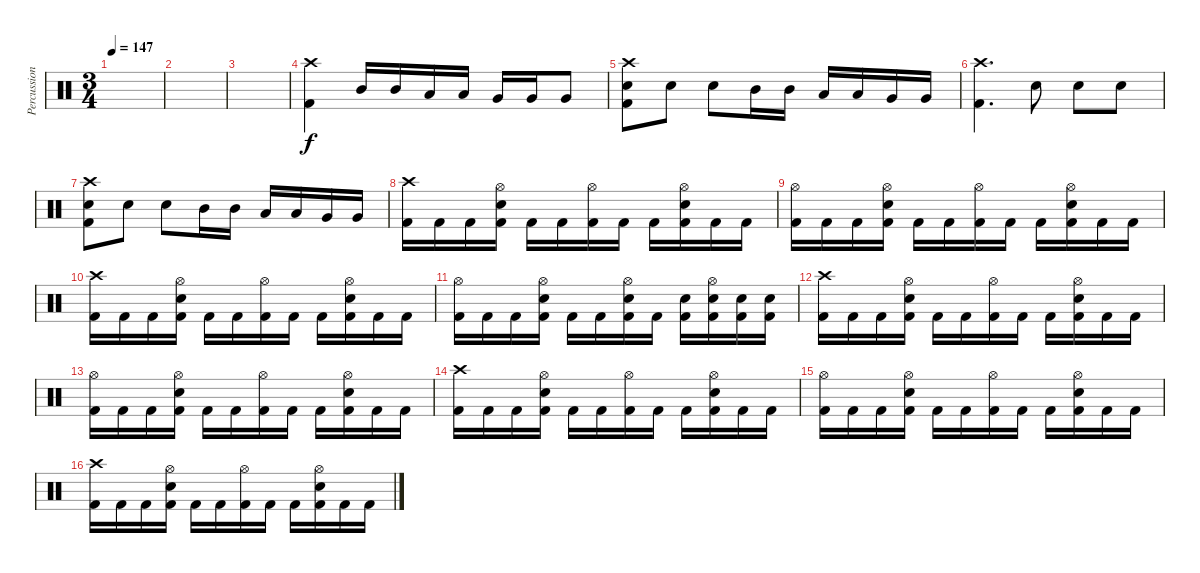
\track ("Percussion" "Percussion") {instrument percussion}
\staff {score}
\articulation defaults
\ts (3 4)
\tempo 147
\clef neutral
\ks c
|
|
|
("Crash high (hit)" "Kick (hit) 2").4 "Mid Tom (hit)".16 "Mid Tom (hit)".16 "Low Tom (hit)".16 "Low Tom (hit)".16 "Very Low Tom (hit)".16 "Very Low Tom (hit)".16 "Very Low Tom (hit)".8 |
("Crash high (hit)" "Electric Snare (hit)" "Kick (hit) 2").8 "Electric Snare (hit)".8 "Electric Snare (hit)".8 "Mid Tom (hit)".16 "Mid Tom (hit)".16 "Low Tom (hit)".16 "Low Tom (hit)".16 "Very Low Tom (hit)".16 "Very Low Tom (hit)".16 |
("Crash high (hit)" "Kick (hit) 2").4{d} "Electric Snare (hit)".8 "Electric Snare (hit)".8 "Electric Snare (hit)".8 |
("Crash high (hit)" "Electric Snare (hit)" "Kick (hit) 2").8 "Electric Snare (hit)".8 "Electric Snare (hit)".8 "Mid Tom (hit)".16 "Mid Tom (hit)".16 "Low Tom (hit)".16 "Low Tom (hit)".16 "Very Low Tom (hit)".16 "Very Low Tom (hit)".16 |
("Crash high (hit)" "Kick (hit) 2").16 "Kick (hit) 2".16 "Kick (hit) 2".16 ("Hi-Hat (open)" "Electric Snare (hit)" "Kick (hit) 2").16 "Kick (hit) 2".16 "Kick (hit) 2".16 ("Hi-Hat (open)" "Kick (hit) 2").16 "Kick (hit) 2".16 "Kick (hit) 2".16 ("Hi-Hat (open)" "Electric Snare (hit)" "Kick (hit) 2").16 "Kick (hit) 2".16 "Kick (hit) 2".16 |
("Hi-Hat (open)" "Kick (hit) 2").16 "Kick (hit) 2".16 "Kick (hit) 2".16 ("Hi-Hat (open)" "Electric Snare (hit)" "Kick (hit) 2").16 "Kick (hit) 2".16 "Kick (hit) 2".16 ("Hi-Hat (open)" "Kick (hit) 2").16 "Kick (hit) 2".16 "Kick (hit) 2".16 ("Hi-Hat (open)" "Electric Snare (hit)" "Kick (hit) 2").16 "Kick (hit) 2".16 "Kick (hit) 2".16 |
("Crash high (hit)" "Kick (hit) 2").16 "Kick (hit) 2".16 "Kick (hit) 2".16 ("Hi-Hat (open)" "Electric Snare (hit)" "Kick (hit) 2").16 "Kick (hit) 2".16 "Kick (hit) 2".16 ("Hi-Hat (open)" "Kick (hit) 2").16 "Kick (hit) 2".16 "Kick (hit) 2".16 ("Hi-Hat (open)" "Electric Snare (hit)" "Kick (hit) 2").16 "Kick (hit) 2".16 "Kick (hit) 2".16 |
("Hi-Hat (open)" "Kick (hit) 2").16 "Kick (hit) 2".16 "Kick (hit) 2".16 ("Hi-Hat (open)" "Electric Snare (hit)" "Kick (hit) 2").16 "Kick (hit) 2".16 "Kick (hit) 2".16 ("Hi-Hat (open)" "Electric Snare (hit)" "Kick (hit) 2").16 "Kick (hit) 2".16 ("Electric Snare (hit)" "Kick (hit) 2").16 ("Hi-Hat (open)" "Electric Snare (hit)" "Kick (hit) 2").16 ("Electric Snare (hit)" "Kick (hit) 2").16 ("Electric Snare (hit)" "Kick (hit) 2").16 |
("Crash high (hit)" "Kick (hit) 2").16 "Kick (hit) 2".16 "Kick (hit) 2".16 ("Hi-Hat (open)" "Electric Snare (hit)" "Kick (hit) 2").16 "Kick (hit) 2".16 "Kick (hit) 2".16 ("Hi-Hat (open)" "Kick (hit) 2").16 "Kick (hit) 2".16 "Kick (hit) 2".16 ("Hi-Hat (open)" "Electric Snare (hit)" "Kick (hit) 2").16 "Kick (hit) 2".16 "Kick (hit) 2".16 |
("Hi-Hat (open)" "Kick (hit) 2").16 "Kick (hit) 2".16 "Kick (hit) 2".16 ("Hi-Hat (open)" "Electric Snare (hit)" "Kick (hit) 2").16 "Kick (hit) 2".16 "Kick (hit) 2".16 ("Hi-Hat (open)" "Kick (hit) 2").16 "Kick (hit) 2".16 "Kick (hit) 2".16 ("Hi-Hat (open)" "Electric Snare (hit)" "Kick (hit) 2").16 "Kick (hit) 2".16 "Kick (hit) 2".16 |
("Crash high (hit)" "Kick (hit) 2").16 "Kick (hit) 2".16 "Kick (hit) 2".16 ("Hi-Hat (open)" "Electric Snare (hit)" "Kick (hit) 2").16 "Kick (hit) 2".16 "Kick (hit) 2".16 ("Hi-Hat (open)" "Kick (hit) 2").16 "Kick (hit) 2".16 "Kick (hit) 2".16 ("Hi-Hat (open)" "Electric Snare (hit)" "Kick (hit) 2").16 "Kick (hit) 2".16 "Kick (hit) 2".16 |
("Hi-Hat (open)" "Kick (hit) 2").16 "Kick (hit) 2".16 "Kick (hit) 2".16 ("Hi-Hat (open)" "Electric Snare (hit)" "Kick (hit) 2").16 "Kick (hit) 2".16 "Kick (hit) 2".16 ("Hi-Hat (open)" "Kick (hit) 2").16 "Kick (hit) 2".16 "Kick (hit) 2".16 ("Hi-Hat (open)" "Electric Snare (hit)" "Kick (hit) 2").16 "Kick (hit) 2".16 "Kick (hit) 2".16 |
("Crash high (hit)" "Kick (hit) 2").16 "Kick (hit) 2".16 "Kick (hit) 2".16 ("Hi-Hat (open)" "Electric Snare (hit)" "Kick (hit) 2").16 "Kick (hit) 2".16 "Kick (hit) 2".16 ("Hi-Hat (open)" "Kick (hit) 2").16 "Kick (hit) 2".16 "Kick (hit) 2".16 ("Hi-Hat (open)" "Electric Snare (hit)" "Kick (hit) 2").16 "Kick (hit) 2".16 "Kick (hit) 2".16
